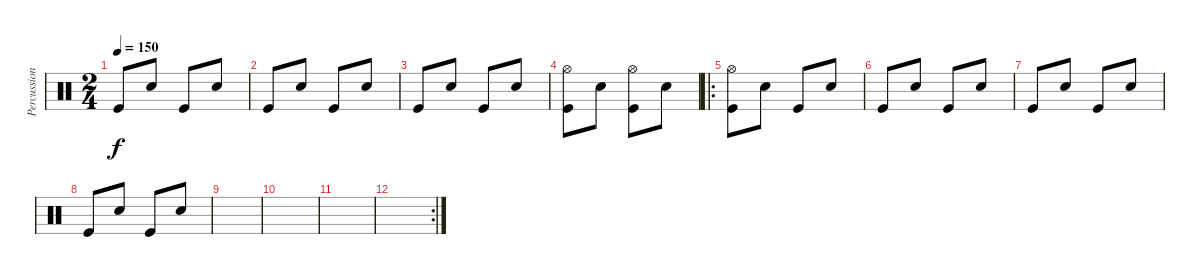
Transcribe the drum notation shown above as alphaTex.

\track ("Percussions" "Percussion") {instrument percussion}
\staff {score}
\articulation defaults
\ts (2 4)
\tempo 150
\clef neutral
\ks c "Kick (hit)".8{dy f} "Snare (hit) 2".8 "Kick (hit)".8 "Snare (hit) 2".8
|
"Kick (hit)".8 "Snare (hit) 2".8 "Kick (hit)".8 "Snare (hit) 2".8 |
"Kick (hit)".8 "Snare (hit) 2".8 "Kick (hit)".8 "Snare (hit) 2".8 |
("Hi-Hat (open)" "Kick (hit)").8 "Snare (hit) 2".8 ("Hi-Hat (open)" "Kick (hit)").8 "Snare (hit) 2".8 |
\ro
("Hi-Hat (open)" "Kick (hit)").8 "Snare (hit) 2".8 "Kick (hit)".8 "Snare (hit) 2".8 |
"Kick (hit)".8 "Snare (hit) 2".8 "Kick (hit)".8 "Snare (hit) 2".8 |
"Kick (hit)".8 "Snare (hit) 2".8 "Kick (hit)".8 "Snare (hit) 2".8 |
"Kick (hit)".8 "Snare (hit) 2".8 "Kick (hit)".8 "Snare (hit) 2".8 |
|
|
|
\rc 2
